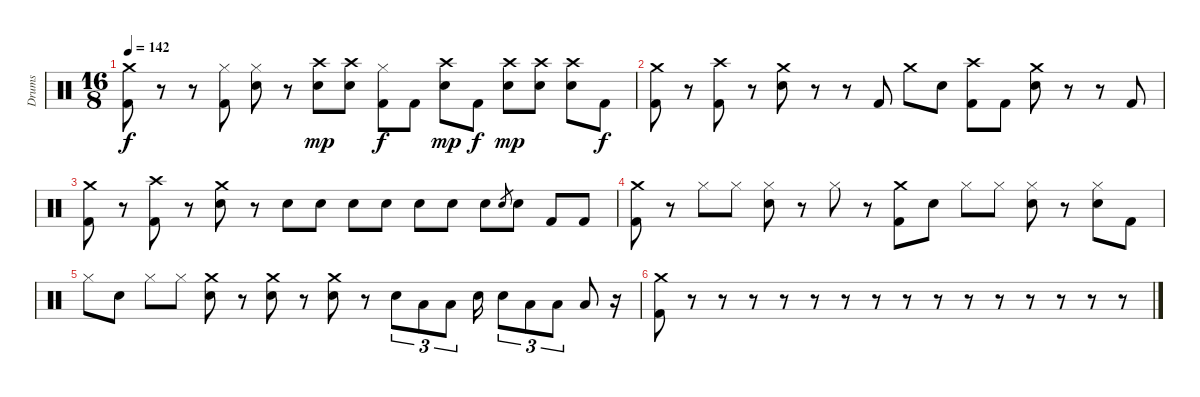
\track ("Drums" "Drums") {instrument percussion}
\staff {score}
\articulation defaults
\ts (16 8)
\tempo 142
\clef neutral
\ks c
("Crash medium (hit)" "Kick (hit) 2").8{dy f} r.8 r.8 ("Hi-Hat (closed)" "Kick (hit) 2").8 ("Hi-Hat (closed)" "Electric Snare (hit)").8 r.8 ("Crash high (hit)" "Electric Snare (hit)").8{dy mp} ("Crash high (hit)" "Electric Snare (hit)").8 ("Hi-Hat (closed)" "Kick (hit) 2").8{dy f} "Kick (hit) 2".8 ("Crash high (hit)" "Electric Snare (hit)").8{dy mp} "Kick (hit) 2".8{dy f} ("Crash high (hit)" "Electric Snare (hit)").8{dy mp} ("Crash high (hit)" "Electric Snare (hit)").8 ("Crash high (hit)" "Electric Snare (hit)").8 "Kick (hit) 2".8{dy f} |
("Crash medium (hit)" "Kick (hit) 2").8 r.8 ("Crash high (hit)" "Kick (hit) 2").8 r.8 ("Crash medium (hit)" "Electric Snare (hit)").8 r.8 r.8 "Kick (hit) 2".8 "Crash medium (hit)".8 "Electric Snare (hit)".8 ("Crash high (hit)" "Kick (hit) 2").8 "Kick (hit) 2".8 ("Crash medium (hit)" "Electric Snare (hit)").8 r.8 r.8 "Kick (hit) 2".8 |
("Crash medium (hit)" "Kick (hit) 2").8 r.8 ("Crash high (hit)" "Kick (hit) 2").8 r.8 ("Crash medium (hit)" "Electric Snare (hit)").8 r.8 "Electric Snare (hit)".8 "Electric Snare (hit)".8 "Electric Snare (hit)".8 "Electric Snare (hit)".8 "Electric Snare (hit)".8 "Electric Snare (hit)".8 "Electric Snare (hit)".8 "Electric Snare (hit)".8{gr} "Electric Snare (hit)".8 "Kick (hit) 2".8 "Kick (hit) 2".8 |
("Crash medium (hit)" "Kick (hit) 2").8 r.8 "Hi-Hat (closed)".8 "Hi-Hat (closed)".8 ("Hi-Hat (closed)" "Electric Snare (hit)").8 r.8 "Hi-Hat (closed)".8 r.8 ("Crash medium (hit)" "Kick (hit) 2").8 "Electric Snare (hit)".8 "Hi-Hat (closed)".8 "Hi-Hat (closed)".8 ("Hi-Hat (closed)" "Electric Snare (hit)").8 r.8 ("Hi-Hat (closed)" "Electric Snare (hit)").8 "Kick (hit) 2".8 |
"Hi-Hat (closed)".8 "Electric Snare (hit)".8 "Hi-Hat (closed)".8 "Hi-Hat (closed)".8 ("Crash medium (hit)" "Electric Snare (hit)").8 r.8 ("Crash medium (hit)" "Electric Snare (hit)").8 r.8 ("Crash medium (hit)" "Electric Snare (hit)").8 r.8 "Electric Snare (hit)".8{tu (3 2)} "Low Tom (hit)".8{tu (3 2)} "Low Tom (hit)".8{tu (3 2)} "Electric Snare (hit)".16 "Electric Snare (hit)".8{tu (3 2)} "Low Tom (hit)".8{tu (3 2)} "Low Tom (hit)".8{tu (3 2)} "Low Tom (hit)".8 r.16 |
("Crash medium (hit)" "Kick (hit) 2").8 r.8 r.8 r.8 r.8 r.8 r.8 r.8 r.8 r.8 r.8 r.8 r.8 r.8 r.8 r.8
